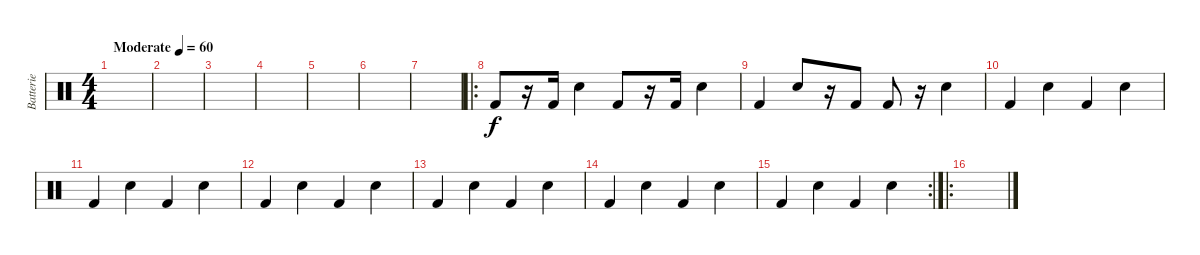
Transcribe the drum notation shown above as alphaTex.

\track ("Batterie" "Batterie") {instrument percussion}
\staff {score}
\articulation defaults
\ts (4 4)
\tempo (60 "Moderate")
\clef neutral
\ks c
|
|
|
|
|
|
|
\ro "Kick (hit) 2".8
r.16 "Kick (hit) 2".16 "Snare (hit) 2".4 "Kick (hit) 2".8 r.16 "Kick (hit) 2".16 "Snare (hit) 2".4 |
"Kick (hit) 2".4 "Snare (hit) 2".8 r.16 "Kick (hit) 2".8 "Kick (hit) 2".8 r.16 "Snare (hit) 2".4 |
"Kick (hit) 2".4 "Snare (hit) 2".4 "Kick (hit) 2".4 "Snare (hit) 2".4 |
"Kick (hit) 2".4 "Snare (hit) 2".4 "Kick (hit) 2".4 "Snare (hit) 2".4 |
"Kick (hit) 2".4 "Snare (hit) 2".4 "Kick (hit) 2".4 "Snare (hit) 2".4 |
"Kick (hit) 2".4 "Snare (hit) 2".4 "Kick (hit) 2".4 "Snare (hit) 2".4 |
"Kick (hit) 2".4 "Snare (hit) 2".4 "Kick (hit) 2".4 "Snare (hit) 2".4 |
\rc 2 "Kick (hit) 2".4 "Snare (hit) 2".4 "Kick (hit) 2".4 "Snare (hit) 2".4
|
\ro
